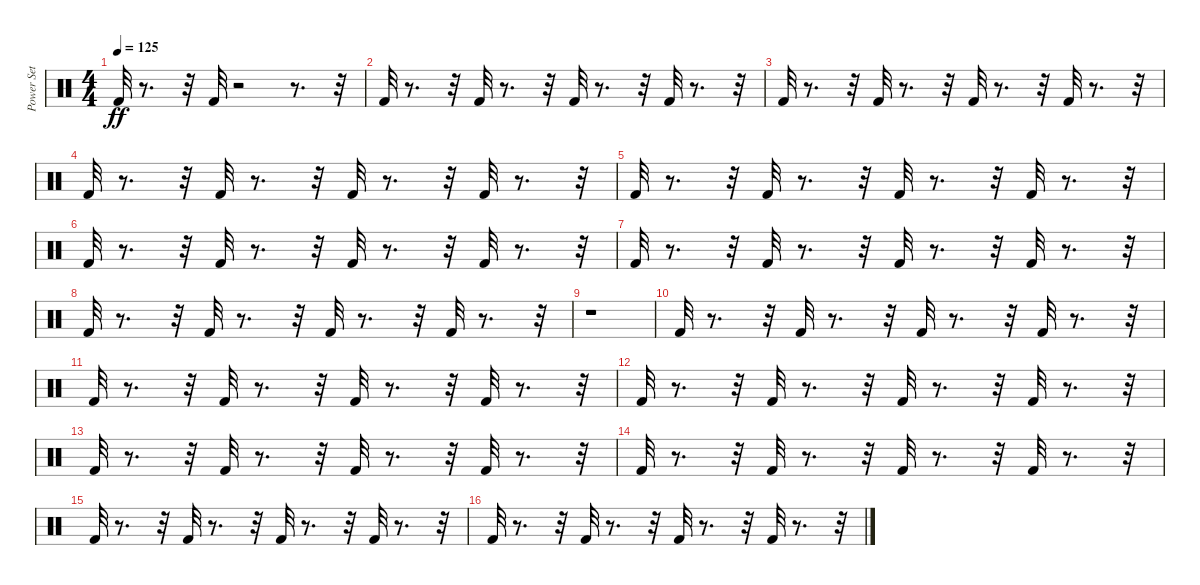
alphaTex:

\track ("Power Set" "Power Set") {instrument percussion}
\staff {score}
\articulation defaults
\ts (4 4)
\tempo 125
\clef neutral
\ks c "Kick (hit) 2".32{dy ff}
r.8{d} r.32 "Kick (hit) 2".32 r.2 r.8{d} r.32 |
"Kick (hit) 2".32 r.8{d} r.32 "Kick (hit) 2".32 r.8{d} r.32 "Kick (hit) 2".32 r.8{d} r.32 "Kick (hit) 2".32 r.8{d} r.32 |
"Kick (hit) 2".32 r.8{d} r.32 "Kick (hit) 2".32 r.8{d} r.32 "Kick (hit) 2".32 r.8{d} r.32 "Kick (hit) 2".32 r.8{d} r.32 |
"Kick (hit) 2".32 r.8{d} r.32 "Kick (hit) 2".32 r.8{d} r.32 "Kick (hit) 2".32 r.8{d} r.32 "Kick (hit) 2".32 r.8{d} r.32 |
"Kick (hit) 2".32 r.8{d} r.32 "Kick (hit) 2".32 r.8{d} r.32 "Kick (hit) 2".32 r.8{d} r.32 "Kick (hit) 2".32 r.8{d} r.32 |
"Kick (hit) 2".32 r.8{d} r.32 "Kick (hit) 2".32 r.8{d} r.32 "Kick (hit) 2".32 r.8{d} r.32 "Kick (hit) 2".32 r.8{d} r.32 |
"Kick (hit) 2".32 r.8{d} r.32 "Kick (hit) 2".32 r.8{d} r.32 "Kick (hit) 2".32 r.8{d} r.32 "Kick (hit) 2".32 r.8{d} r.32 |
"Kick (hit) 2".32 r.8{d} r.32 "Kick (hit) 2".32 r.8{d} r.32 "Kick (hit) 2".32 r.8{d} r.32 "Kick (hit) 2".32 r.8{d} r.32 |
r.1 |
"Kick (hit) 2".32 r.8{d} r.32 "Kick (hit) 2".32 r.8{d} r.32 "Kick (hit) 2".32 r.8{d} r.32 "Kick (hit) 2".32 r.8{d} r.32 |
"Kick (hit) 2".32 r.8{d} r.32 "Kick (hit) 2".32 r.8{d} r.32 "Kick (hit) 2".32 r.8{d} r.32 "Kick (hit) 2".32 r.8{d} r.32 |
"Kick (hit) 2".32 r.8{d} r.32 "Kick (hit) 2".32 r.8{d} r.32 "Kick (hit) 2".32 r.8{d} r.32 "Kick (hit) 2".32 r.8{d} r.32 |
"Kick (hit) 2".32 r.8{d} r.32 "Kick (hit) 2".32 r.8{d} r.32 "Kick (hit) 2".32 r.8{d} r.32 "Kick (hit) 2".32 r.8{d} r.32 |
"Kick (hit) 2".32 r.8{d} r.32 "Kick (hit) 2".32 r.8{d} r.32 "Kick (hit) 2".32 r.8{d} r.32 "Kick (hit) 2".32 r.8{d} r.32 |
"Kick (hit) 2".32 r.8{d} r.32 "Kick (hit) 2".32 r.8{d} r.32 "Kick (hit) 2".32 r.8{d} r.32 "Kick (hit) 2".32 r.8{d} r.32 |
"Kick (hit) 2".32 r.8{d} r.32 "Kick (hit) 2".32 r.8{d} r.32 "Kick (hit) 2".32 r.8{d} r.32 "Kick (hit) 2".32 r.8{d} r.32
